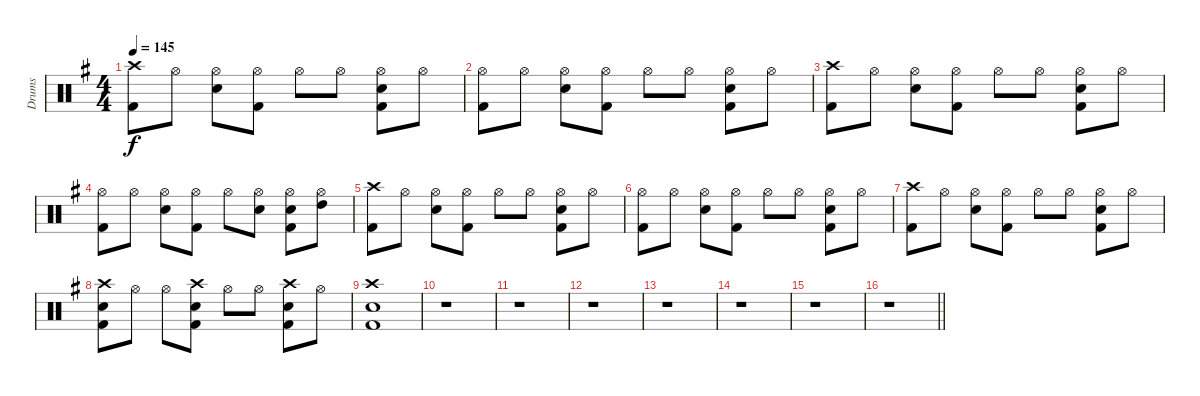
\track ("Drums" "Drums") {instrument percussion}
\staff {score}
\articulation defaults
\ts (4 4)
\tempo 145
\clef neutral
\ks g
("Crash high (hit)" "Kick (hit) 2").8{dy f} "Hi-Hat (open)".8 ("Hi-Hat (open)" "Electric Snare (hit)").8 ("Hi-Hat (open)" "Kick (hit) 2").8 "Hi-Hat (open)".8 "Hi-Hat (open)".8 ("Hi-Hat (open)" "Electric Snare (hit)" "Kick (hit) 2").8 "Hi-Hat (open)".8 |
("Hi-Hat (open)" "Kick (hit) 2").8 "Hi-Hat (open)".8 ("Hi-Hat (open)" "Electric Snare (hit)").8 ("Hi-Hat (open)" "Kick (hit) 2").8 "Hi-Hat (open)".8 "Hi-Hat (open)".8 ("Hi-Hat (open)" "Electric Snare (hit)" "Kick (hit) 2").8 "Hi-Hat (open)".8 |
("Crash high (hit)" "Kick (hit) 2").8 "Hi-Hat (open)".8 ("Hi-Hat (open)" "Electric Snare (hit)").8 ("Hi-Hat (open)" "Kick (hit) 2").8 "Hi-Hat (open)".8 "Hi-Hat (open)".8 ("Hi-Hat (open)" "Electric Snare (hit)" "Kick (hit) 2").8 "Hi-Hat (open)".8 |
("Hi-Hat (open)" "Kick (hit) 2").8 "Hi-Hat (open)".8 ("Hi-Hat (open)" "Electric Snare (hit)").8 ("Hi-Hat (open)" "Kick (hit) 2").8 "Hi-Hat (open)".8 ("Hi-Hat (open)" "Electric Snare (hit)").8 ("Hi-Hat (open)" "Electric Snare (hit)" "Kick (hit) 2").8 ("Hi-Hat (open)" "High Tom (hit)").8 |
("Crash high (hit)" "Kick (hit) 2").8 "Hi-Hat (open)".8 ("Hi-Hat (open)" "Electric Snare (hit)").8 ("Hi-Hat (open)" "Kick (hit) 2").8 "Hi-Hat (open)".8 "Hi-Hat (open)".8 ("Hi-Hat (open)" "Electric Snare (hit)" "Kick (hit) 2").8 "Hi-Hat (open)".8 |
("Hi-Hat (open)" "Kick (hit) 2").8 "Hi-Hat (open)".8 ("Hi-Hat (open)" "Electric Snare (hit)").8 ("Hi-Hat (open)" "Kick (hit) 2").8 "Hi-Hat (open)".8 "Hi-Hat (open)".8 ("Hi-Hat (open)" "Electric Snare (hit)" "Kick (hit) 2").8 "Hi-Hat (open)".8 |
("Crash high (hit)" "Kick (hit) 2").8 "Hi-Hat (open)".8 ("Hi-Hat (open)" "Electric Snare (hit)").8 ("Hi-Hat (open)" "Kick (hit) 2").8 "Hi-Hat (open)".8 "Hi-Hat (open)".8 ("Hi-Hat (open)" "Electric Snare (hit)" "Kick (hit) 2").8 "Hi-Hat (open)".8 |
("Crash high (hit)" "Electric Snare (hit)" "Kick (hit) 2").8 "Hi-Hat (open)".8 "Hi-Hat (open)".8 ("Crash high (hit)" "Electric Snare (hit)" "Kick (hit) 2").8 "Hi-Hat (open)".8 "Hi-Hat (open)".8 ("Crash high (hit)" "Electric Snare (hit)" "Kick (hit) 2").8 "Hi-Hat (open)".8 |
("Crash high (hit)" "Electric Snare (hit)" "Kick (hit) 2").1 |
r.1 |
r.1 |
r.1 |
r.1 |
r.1 |
r.1 |
\barLineRight lightlight
r.1
